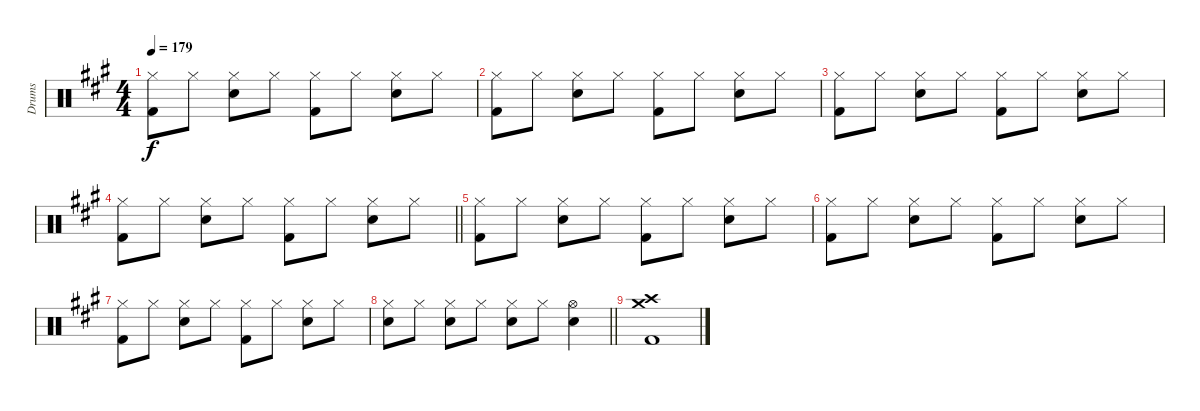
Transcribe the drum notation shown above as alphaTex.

\track ("Drums" "Drums") {instrument percussion}
\staff {score}
\articulation defaults
\ts (4 4)
\tempo 179
\clef neutral
\ks a
("Hi-Hat (closed)" "Kick (hit) 2").8{dy f} "Hi-Hat (closed)".8 ("Hi-Hat (closed)" "Electric Snare (hit)").8 "Hi-Hat (closed)".8 ("Hi-Hat (closed)" "Kick (hit) 2").8 "Hi-Hat (closed)".8 ("Hi-Hat (closed)" "Electric Snare (hit)").8 "Hi-Hat (closed)".8 |
("Hi-Hat (closed)" "Kick (hit) 2").8 "Hi-Hat (closed)".8 ("Hi-Hat (closed)" "Electric Snare (hit)").8 "Hi-Hat (closed)".8 ("Hi-Hat (closed)" "Kick (hit) 2").8 "Hi-Hat (closed)".8 ("Hi-Hat (closed)" "Electric Snare (hit)").8 "Hi-Hat (closed)".8 |
("Hi-Hat (closed)" "Kick (hit) 2").8 "Hi-Hat (closed)".8 ("Hi-Hat (closed)" "Electric Snare (hit)").8 "Hi-Hat (closed)".8 ("Hi-Hat (closed)" "Kick (hit) 2").8 "Hi-Hat (closed)".8 ("Hi-Hat (closed)" "Electric Snare (hit)").8 "Hi-Hat (closed)".8 |
\barLineRight lightlight
("Hi-Hat (closed)" "Kick (hit) 2").8 "Hi-Hat (closed)".8 ("Hi-Hat (closed)" "Electric Snare (hit)").8 "Hi-Hat (closed)".8 ("Hi-Hat (closed)" "Kick (hit) 2").8 "Hi-Hat (closed)".8 ("Hi-Hat (closed)" "Electric Snare (hit)").8 "Hi-Hat (closed)".8 |
("Hi-Hat (closed)" "Kick (hit) 2").8 "Hi-Hat (closed)".8 ("Hi-Hat (closed)" "Electric Snare (hit)").8 "Hi-Hat (closed)".8 ("Hi-Hat (closed)" "Kick (hit) 2").8 "Hi-Hat (closed)".8 ("Hi-Hat (closed)" "Electric Snare (hit)").8 "Hi-Hat (closed)".8 |
("Hi-Hat (closed)" "Kick (hit) 2").8 "Hi-Hat (closed)".8 ("Hi-Hat (closed)" "Electric Snare (hit)").8 "Hi-Hat (closed)".8 ("Hi-Hat (closed)" "Kick (hit) 2").8 "Hi-Hat (closed)".8 ("Hi-Hat (closed)" "Electric Snare (hit)").8 "Hi-Hat (closed)".8 |
("Hi-Hat (closed)" "Kick (hit) 2").8 "Hi-Hat (closed)".8 ("Hi-Hat (closed)" "Electric Snare (hit)").8 "Hi-Hat (closed)".8 ("Hi-Hat (closed)" "Kick (hit) 2").8 "Hi-Hat (closed)".8 ("Hi-Hat (closed)" "Electric Snare (hit)").8 "Hi-Hat (closed)".8 |
\barLineRight lightlight
("Hi-Hat (closed)" "Electric Snare (hit)").8 "Hi-Hat (closed)".8 ("Hi-Hat (closed)" "Electric Snare (hit)").8 "Hi-Hat (closed)".8 ("Hi-Hat (closed)" "Electric Snare (hit)").8 "Hi-Hat (closed)".8 ("Hi-Hat (open)" "Electric Snare (hit)").4 |
("Crash medium (hit)" "Crash high (hit)" "Kick (hit) 2").1
